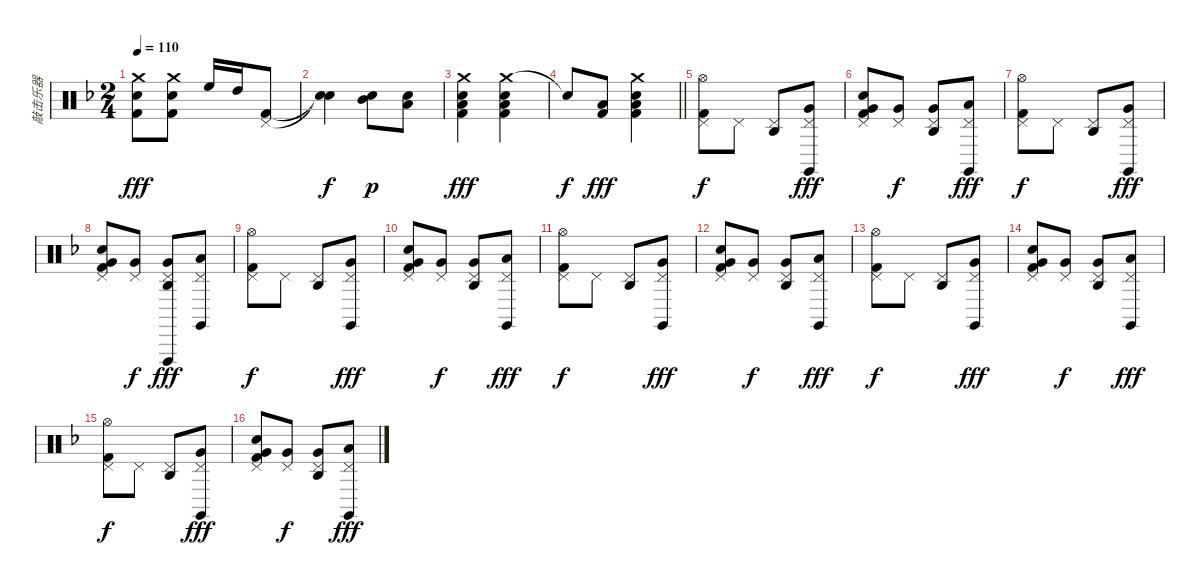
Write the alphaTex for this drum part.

\track ("敲击乐器" "敲击乐器") {instrument percussion}
\staff {score}
\articulation defaults
\ts (2 4)
\tempo 110
\clef neutral
\ks dminor
("Crash medium (hit)" "Electric Snare (hit)" "Kick (hit) 2").8{dy fff} ("Crash medium (hit)" "Electric Snare (hit)" "Kick (hit) 2").8 "High Floor Tom (hit)".16 "High Tom (hit)".16 ("Pedal Hi-Hat (hit)" "Kick (hit) 2").8 |
("Snare (hit)"{t} "Snare (hit)"{t}).4{dy f} ("Mid Tom (hit)" "Electric Snare (hit)").8{dy p} ("Low Tom (hit)" "Electric Snare (hit)").8 |
("Crash medium (hit)" "Electric Snare (hit)" "Low Floor Tom (hit)" "Kick (hit) 2").4{dy fff} ("Crash medium (hit)" "Electric Snare (hit)" "Low Floor Tom (hit)" "Kick (hit) 2").4 |
\barLineRight lightlight "Snare (hit)"{t}.8{dy f}
("Low Floor Tom (hit)" "Kick (hit) 2").8{dy fff} ("Crash medium (hit)" "Electric Snare (hit)" "Low Floor Tom (hit)" "Kick (hit) 2").4 |
("Hi-Hat (open)" "Pedal Hi-Hat (hit)" "Kick (hit) 2").8{dy f} "Pedal Hi-Hat (hit)".8 ("Pedal Hi-Hat (hit)" "Agogo high (hit)").8 ("Pedal Hi-Hat (hit)" "Claves (hit)" "Very Low Tom (hit)").8{dy fff} |
("Pedal Hi-Hat (hit)" "Electric Snare (hit)" "Very Low Tom (hit)" "Kick (hit) 2").8 ("Pedal Hi-Hat (hit)" "Very Low Tom (hit)").8{dy f} ("Pedal Hi-Hat (hit)" "Agogo high (hit)" "Very Low Tom (hit)").8 ("Pedal Hi-Hat (hit)" "Claves (hit)" "Low Floor Tom (hit)").8{dy fff} |
("Hi-Hat (open)" "Pedal Hi-Hat (hit)" "Kick (hit) 2").8{dy f} "Pedal Hi-Hat (hit)".8 ("Pedal Hi-Hat (hit)" "Agogo high (hit)").8 ("Pedal Hi-Hat (hit)" "Claves (hit)" "Very Low Tom (hit)").8{dy fff} |
("Pedal Hi-Hat (hit)" "Electric Snare (hit)" "Very Low Tom (hit)" "Kick (hit) 2").8 ("Pedal Hi-Hat (hit)" "Very Low Tom (hit)").8{dy f} ("Pedal Hi-Hat (hit)" "Agogo high (hit)" "Vibraslap (hit)" "Very Low Tom (hit)").8{dy fff} ("Pedal Hi-Hat (hit)" "Claves (hit)" "Low Floor Tom (hit)").8 |
("Hi-Hat (open)" "Pedal Hi-Hat (hit)" "Kick (hit) 2").8{dy f} "Pedal Hi-Hat (hit)".8 ("Pedal Hi-Hat (hit)" "Agogo high (hit)").8 ("Pedal Hi-Hat (hit)" "Claves (hit)" "Very Low Tom (hit)").8{dy fff} |
("Pedal Hi-Hat (hit)" "Electric Snare (hit)" "Very Low Tom (hit)" "Kick (hit) 2").8 ("Pedal Hi-Hat (hit)" "Very Low Tom (hit)").8{dy f} ("Pedal Hi-Hat (hit)" "Agogo high (hit)" "Very Low Tom (hit)").8 ("Pedal Hi-Hat (hit)" "Claves (hit)" "Low Floor Tom (hit)").8{dy fff} |
("Hi-Hat (open)" "Pedal Hi-Hat (hit)" "Kick (hit) 2").8{dy f} "Pedal Hi-Hat (hit)".8 ("Pedal Hi-Hat (hit)" "Agogo high (hit)").8 ("Pedal Hi-Hat (hit)" "Claves (hit)" "Very Low Tom (hit)").8{dy fff} |
("Pedal Hi-Hat (hit)" "Electric Snare (hit)" "Very Low Tom (hit)" "Kick (hit) 2").8 ("Pedal Hi-Hat (hit)" "Very Low Tom (hit)").8{dy f} ("Pedal Hi-Hat (hit)" "Agogo high (hit)" "Very Low Tom (hit)").8 ("Pedal Hi-Hat (hit)" "Claves (hit)" "Low Floor Tom (hit)").8{dy fff} |
("Hi-Hat (open)" "Pedal Hi-Hat (hit)" "Kick (hit) 2").8{dy f} "Pedal Hi-Hat (hit)".8 ("Pedal Hi-Hat (hit)" "Agogo high (hit)").8 ("Pedal Hi-Hat (hit)" "Claves (hit)" "Very Low Tom (hit)").8{dy fff} |
("Pedal Hi-Hat (hit)" "Electric Snare (hit)" "Very Low Tom (hit)" "Kick (hit) 2").8 ("Pedal Hi-Hat (hit)" "Very Low Tom (hit)").8{dy f} ("Pedal Hi-Hat (hit)" "Agogo high (hit)" "Very Low Tom (hit)").8 ("Pedal Hi-Hat (hit)" "Claves (hit)" "Low Floor Tom (hit)").8{dy fff} |
("Hi-Hat (open)" "Pedal Hi-Hat (hit)" "Kick (hit) 2").8{dy f} "Pedal Hi-Hat (hit)".8 ("Pedal Hi-Hat (hit)" "Agogo high (hit)").8 ("Pedal Hi-Hat (hit)" "Claves (hit)" "Very Low Tom (hit)").8{dy fff} |
("Pedal Hi-Hat (hit)" "Electric Snare (hit)" "Very Low Tom (hit)" "Kick (hit) 2").8 ("Pedal Hi-Hat (hit)" "Very Low Tom (hit)").8{dy f} ("Pedal Hi-Hat (hit)" "Agogo high (hit)" "Very Low Tom (hit)").8 ("Pedal Hi-Hat (hit)" "Claves (hit)" "Low Floor Tom (hit)").8{dy fff}
